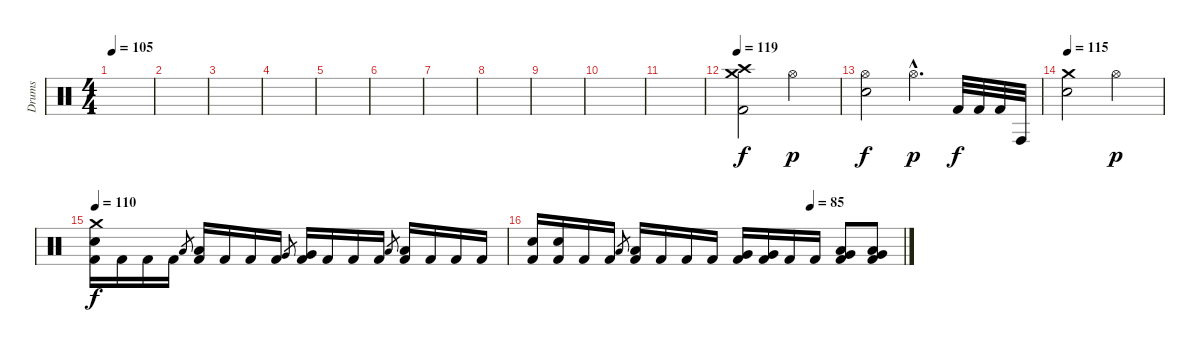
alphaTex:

\track ("Drums" "Drums") {instrument percussion}
\staff {score}
\articulation defaults
\ts (4 4)
\tempo 105
\clef neutral
\ks c
|
|
|
|
|
|
|
|
|
|
|
\tempo 119
("Crash high (hit)" "Crash medium (hit)" "Kick (hit) 2").2 "Hi-Hat (open)".2{dy p} |
("Snare (hit) 2" "Hi-Hat (open)").2{dy f} "Hi-Hat (open)"{hac}.4{d dy p} "Kick (hit) 2".32{dy f} "Kick (hit) 2".32 "Kick (hit) 2".32 "Conga high (hit)".32 |
\tempo 115
("Crash medium (hit)" "Snare (hit) 2").2 "Hi-Hat (open)".2{dy p} |
\tempo 110
("Crash medium (hit)" "Snare (hit) 2" "Kick (hit) 2").16{dy f} "Kick (hit) 2".16 "Kick (hit) 2".16 "Kick (hit) 2".16 "Low Tom (hit)".8{gr} ("Low Tom (hit)" "Kick (hit) 2").16 "Kick (hit) 2".16 "Kick (hit) 2".16 "Kick (hit) 2".16 "Very Low Tom (hit)".8{gr} ("Very Low Tom (hit)" "Kick (hit) 2").16 "Kick (hit) 2".16 "Kick (hit) 2".16 "Kick (hit) 2".16 "Low Floor Tom (hit)".8{gr} ("Low Floor Tom (hit)" "Kick (hit) 2").16 "Kick (hit) 2".16 "Kick (hit) 2".16 "Kick (hit) 2".16 |
\tempo (85 0.75)
("Snare (hit) 2" "Kick (hit) 2").16 ("Snare (hit) 2" "Kick (hit) 2").16 "Kick (hit) 2".16 "Kick (hit) 2".16 "Low Tom (hit)".8{gr} ("Low Tom (hit)" "Kick (hit) 2").16 "Kick (hit) 2".16 "Kick (hit) 2".16 "Kick (hit) 2".16 ("Very Low Tom (hit)" "Kick (hit) 2").16 ("Very Low Tom (hit)" "Kick (hit) 2").16 "Kick (hit) 2".16 "Kick (hit) 2".16 ("Low Tom (hit)" "Very Low Tom (hit)" "Kick (hit) 2").8 ("Low Tom (hit)" "Very Low Tom (hit)" "Kick (hit) 2").8
